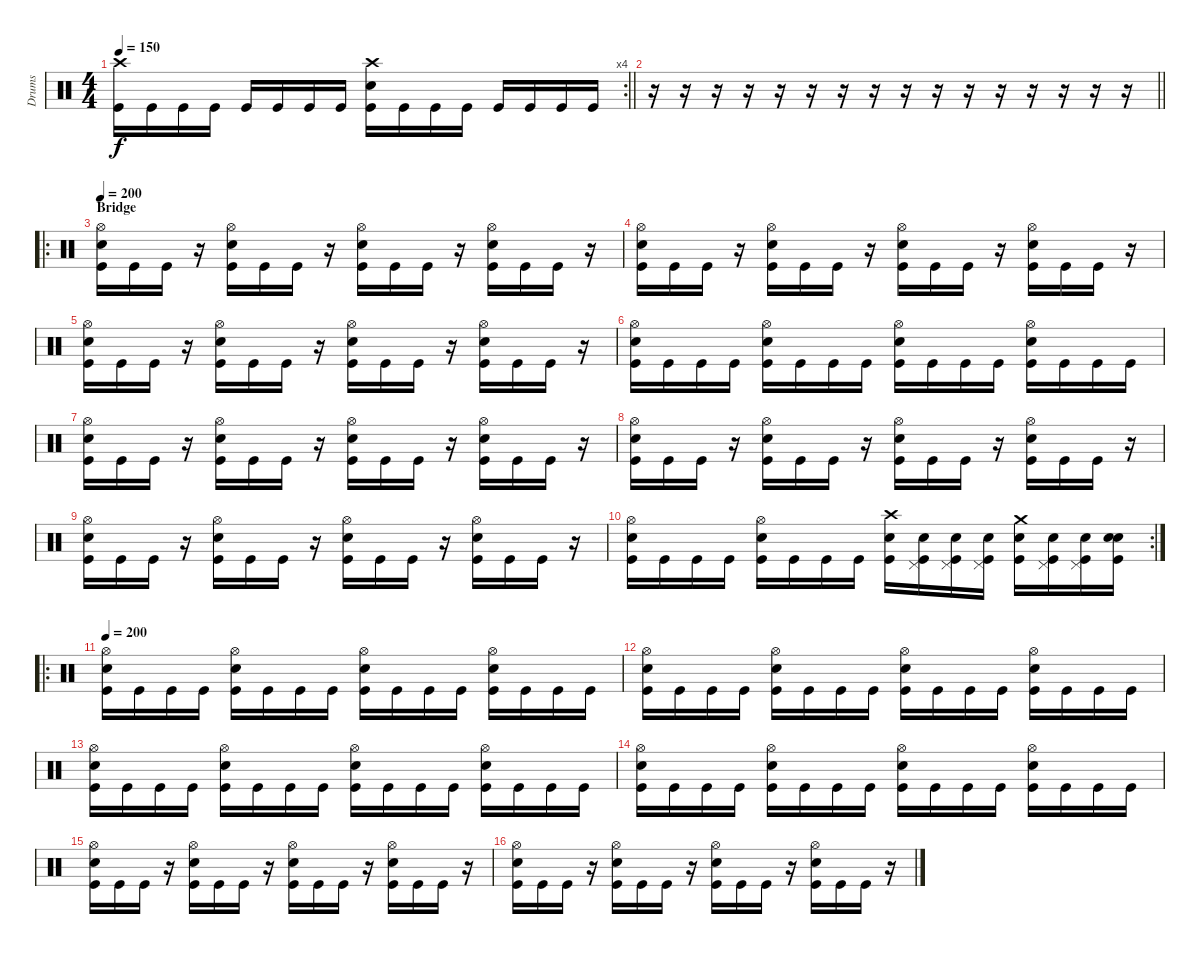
\track ("Drums" "Drums") {instrument percussion}
\staff {score}
\articulation defaults
\rc 4
\ts (4 4)
\tempo 150
\clef neutral
\barLineRight lightlight
\ks c
("Crash high (hit)" "Kick (hit)").16{dy f} "Kick (hit)".16 "Kick (hit)".16 "Kick (hit)".16 "Kick (hit)".16 "Kick (hit)".16 "Kick (hit)".16 "Kick (hit)".16 ("Electric Snare (hit)" "Crash high (hit)" "Kick (hit)").16 "Kick (hit)".16 "Kick (hit)".16 "Kick (hit)".16 "Kick (hit)".16 "Kick (hit)".16 "Kick (hit)".16 "Kick (hit)".16 |
\barLineRight lightlight
r.16 r.16 r.16 r.16 r.16 r.16 r.16 r.16 r.16 r.16 r.16 r.16 r.16 r.16 r.16 r.16 |
\ro
\section ("" "Bridge")
\tempo 200
("Hi-Hat (open)" "Electric Snare (hit)" "Kick (hit)").16 "Kick (hit)".16 "Kick (hit)".16 r.16 ("Hi-Hat (open)" "Electric Snare (hit)" "Kick (hit)").16 "Kick (hit)".16 "Kick (hit)".16 r.16 ("Hi-Hat (open)" "Electric Snare (hit)" "Kick (hit)").16 "Kick (hit)".16 "Kick (hit)".16 r.16 ("Hi-Hat (open)" "Electric Snare (hit)" "Kick (hit)").16 "Kick (hit)".16 "Kick (hit)".16 r.16 |
("Hi-Hat (open)" "Electric Snare (hit)" "Kick (hit)").16 "Kick (hit)".16 "Kick (hit)".16 r.16 ("Hi-Hat (open)" "Electric Snare (hit)" "Kick (hit)").16 "Kick (hit)".16 "Kick (hit)".16 r.16 ("Hi-Hat (open)" "Electric Snare (hit)" "Kick (hit)").16 "Kick (hit)".16 "Kick (hit)".16 r.16 ("Hi-Hat (open)" "Electric Snare (hit)" "Kick (hit)").16 "Kick (hit)".16 "Kick (hit)".16 r.16 |
("Hi-Hat (open)" "Electric Snare (hit)" "Kick (hit)").16 "Kick (hit)".16 "Kick (hit)".16 r.16 ("Hi-Hat (open)" "Electric Snare (hit)" "Kick (hit)").16 "Kick (hit)".16 "Kick (hit)".16 r.16 ("Hi-Hat (open)" "Electric Snare (hit)" "Kick (hit)").16 "Kick (hit)".16 "Kick (hit)".16 r.16 ("Hi-Hat (open)" "Electric Snare (hit)" "Kick (hit)").16 "Kick (hit)".16 "Kick (hit)".16 r.16 |
("Hi-Hat (open)" "Electric Snare (hit)" "Kick (hit)").16 "Kick (hit)".16 "Kick (hit)".16 "Kick (hit)".16 ("Hi-Hat (open)" "Electric Snare (hit)" "Kick (hit)").16 "Kick (hit)".16 "Kick (hit)".16 "Kick (hit)".16 ("Hi-Hat (open)" "Electric Snare (hit)" "Kick (hit)").16 "Kick (hit)".16 "Kick (hit)".16 "Kick (hit)".16 ("Hi-Hat (open)" "Electric Snare (hit)" "Kick (hit)").16 "Kick (hit)".16 "Kick (hit)".16 "Kick (hit)".16 |
("Hi-Hat (open)" "Electric Snare (hit)" "Kick (hit)").16 "Kick (hit)".16 "Kick (hit)".16 r.16 ("Hi-Hat (open)" "Electric Snare (hit)" "Kick (hit)").16 "Kick (hit)".16 "Kick (hit)".16 r.16 ("Hi-Hat (open)" "Electric Snare (hit)" "Kick (hit)").16 "Kick (hit)".16 "Kick (hit)".16 r.16 ("Hi-Hat (open)" "Electric Snare (hit)" "Kick (hit)").16 "Kick (hit)".16 "Kick (hit)".16 r.16 |
("Hi-Hat (open)" "Electric Snare (hit)" "Kick (hit)").16 "Kick (hit)".16 "Kick (hit)".16 r.16 ("Hi-Hat (open)" "Electric Snare (hit)" "Kick (hit)").16 "Kick (hit)".16 "Kick (hit)".16 r.16 ("Hi-Hat (open)" "Electric Snare (hit)" "Kick (hit)").16 "Kick (hit)".16 "Kick (hit)".16 r.16 ("Hi-Hat (open)" "Electric Snare (hit)" "Kick (hit)").16 "Kick (hit)".16 "Kick (hit)".16 r.16 |
("Hi-Hat (open)" "Electric Snare (hit)" "Kick (hit)").16 "Kick (hit)".16 "Kick (hit)".16 r.16 ("Hi-Hat (open)" "Electric Snare (hit)" "Kick (hit)").16 "Kick (hit)".16 "Kick (hit)".16 r.16 ("Hi-Hat (open)" "Electric Snare (hit)" "Kick (hit)").16 "Kick (hit)".16 "Kick (hit)".16 r.16 ("Hi-Hat (open)" "Electric Snare (hit)" "Kick (hit)").16 "Kick (hit)".16 "Kick (hit)".16 r.16 |
\rc 2
("Hi-Hat (open)" "Electric Snare (hit)" "Kick (hit)").16 "Kick (hit)".16 "Kick (hit)".16 "Kick (hit)".16 ("Hi-Hat (open)" "Electric Snare (hit)" "Kick (hit)").16 "Kick (hit)".16 "Kick (hit)".16 "Kick (hit)".16 ("Crash high (hit)" "Electric Snare (hit)" "Kick (hit)").16 ("Pedal Hi-Hat (hit)" "Electric Snare (hit)" "Kick (hit)").16 ("Pedal Hi-Hat (hit)" "Electric Snare (hit)" "Kick (hit)").16 ("Pedal Hi-Hat (hit)" "Electric Snare (hit)" "Kick (hit)").16 ("Crash medium (hit)" "Electric Snare (hit)" "Kick (hit)").16 ("Pedal Hi-Hat (hit)" "Electric Snare (hit)" "Kick (hit)").16 ("Pedal Hi-Hat (hit)" "Electric Snare (hit)" "Kick (hit)").16 ("Snare (hit)" "Electric Snare (hit)" "Kick (hit)").16 |
\ro
\tempo 200
("Hi-Hat (open)" "Electric Snare (hit)" "Kick (hit)").16 "Kick (hit)".16 "Kick (hit)".16 "Kick (hit)".16 ("Hi-Hat (open)" "Electric Snare (hit)" "Kick (hit)").16 "Kick (hit)".16 "Kick (hit)".16 "Kick (hit)".16 ("Hi-Hat (open)" "Electric Snare (hit)" "Kick (hit)").16 "Kick (hit)".16 "Kick (hit)".16 "Kick (hit)".16 ("Hi-Hat (open)" "Electric Snare (hit)" "Kick (hit)").16 "Kick (hit)".16 "Kick (hit)".16 "Kick (hit)".16 |
("Hi-Hat (open)" "Electric Snare (hit)" "Kick (hit)").16 "Kick (hit)".16 "Kick (hit)".16 "Kick (hit)".16 ("Hi-Hat (open)" "Electric Snare (hit)" "Kick (hit)").16 "Kick (hit)".16 "Kick (hit)".16 "Kick (hit)".16 ("Hi-Hat (open)" "Electric Snare (hit)" "Kick (hit)").16 "Kick (hit)".16 "Kick (hit)".16 "Kick (hit)".16 ("Hi-Hat (open)" "Electric Snare (hit)" "Kick (hit)").16 "Kick (hit)".16 "Kick (hit)".16 "Kick (hit)".16 |
("Hi-Hat (open)" "Electric Snare (hit)" "Kick (hit)").16 "Kick (hit)".16 "Kick (hit)".16 "Kick (hit)".16 ("Hi-Hat (open)" "Electric Snare (hit)" "Kick (hit)").16 "Kick (hit)".16 "Kick (hit)".16 "Kick (hit)".16 ("Hi-Hat (open)" "Electric Snare (hit)" "Kick (hit)").16 "Kick (hit)".16 "Kick (hit)".16 "Kick (hit)".16 ("Hi-Hat (open)" "Electric Snare (hit)" "Kick (hit)").16 "Kick (hit)".16 "Kick (hit)".16 "Kick (hit)".16 |
("Hi-Hat (open)" "Electric Snare (hit)" "Kick (hit)").16 "Kick (hit)".16 "Kick (hit)".16 "Kick (hit)".16 ("Hi-Hat (open)" "Electric Snare (hit)" "Kick (hit)").16 "Kick (hit)".16 "Kick (hit)".16 "Kick (hit)".16 ("Hi-Hat (open)" "Electric Snare (hit)" "Kick (hit)").16 "Kick (hit)".16 "Kick (hit)".16 "Kick (hit)".16 ("Hi-Hat (open)" "Electric Snare (hit)" "Kick (hit)").16 "Kick (hit)".16 "Kick (hit)".16 "Kick (hit)".16 |
("Hi-Hat (open)" "Electric Snare (hit)" "Kick (hit)").16 "Kick (hit)".16 "Kick (hit)".16 r.16 ("Hi-Hat (open)" "Electric Snare (hit)" "Kick (hit)").16 "Kick (hit)".16 "Kick (hit)".16 r.16 ("Hi-Hat (open)" "Electric Snare (hit)" "Kick (hit)").16 "Kick (hit)".16 "Kick (hit)".16 r.16 ("Hi-Hat (open)" "Electric Snare (hit)" "Kick (hit)").16 "Kick (hit)".16 "Kick (hit)".16 r.16 |
("Hi-Hat (open)" "Electric Snare (hit)" "Kick (hit)").16 "Kick (hit)".16 "Kick (hit)".16 r.16 ("Hi-Hat (open)" "Electric Snare (hit)" "Kick (hit)").16 "Kick (hit)".16 "Kick (hit)".16 r.16 ("Hi-Hat (open)" "Electric Snare (hit)" "Kick (hit)").16 "Kick (hit)".16 "Kick (hit)".16 r.16 ("Hi-Hat (open)" "Electric Snare (hit)" "Kick (hit)").16 "Kick (hit)".16 "Kick (hit)".16 r.16
